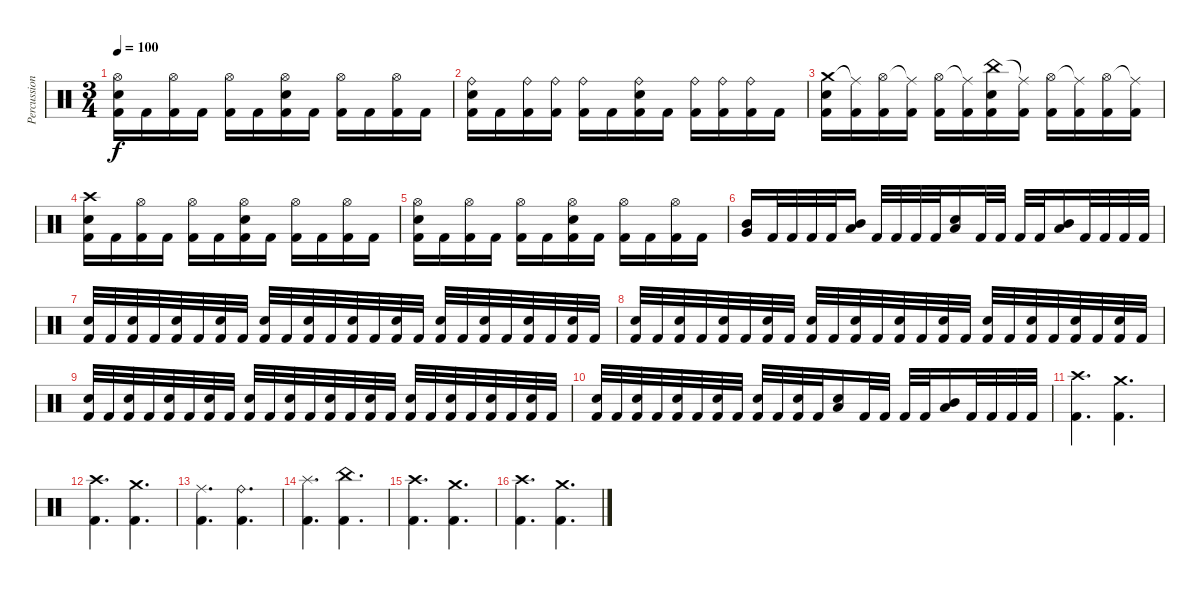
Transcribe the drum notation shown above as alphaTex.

\track ("Percussion" "Percussion") {instrument percussion}
\staff {score}
\articulation defaults
\ts (3 4)
\tempo 100
\clef neutral
\ks c
("Hi-Hat (open)" "Snare (hit) 2" "Kick (hit) 2").16{dy f} "Kick (hit) 2".16 ("Hi-Hat (open)" "Kick (hit) 2").16 "Kick (hit) 2".16 ("Hi-Hat (open)" "Kick (hit) 2").16 "Kick (hit) 2".16 ("Hi-Hat (open)" "Snare (hit) 2" "Kick (hit) 2").16 "Kick (hit) 2".16 ("Hi-Hat (open)" "Kick (hit) 2").16 "Kick (hit) 2".16 ("Hi-Hat (open)" "Kick (hit) 2").16 "Kick (hit) 2".16 |
("Ride (bell)" "Snare (hit) 2" "Kick (hit) 2").16 "Kick (hit) 2".16 ("Ride (bell)" "Kick (hit) 2").16 ("Ride (bell)" "Kick (hit) 2").16 ("Ride (bell)" "Kick (hit) 2").16 "Kick (hit) 2".16 ("Ride (bell)" "Snare (hit) 2" "Kick (hit) 2").16 "Kick (hit) 2".16 ("Ride (bell)" "Kick (hit) 2").16 ("Ride (bell)" "Kick (hit) 2").16 ("Ride (bell)" "Kick (hit) 2").16 "Kick (hit) 2".16 |
("Crash medium (hit)" "Snare (hit) 2" "Kick (hit) 2").16 ("Ride (middle)"{t} "Kick (hit) 2").16 ("Hi-Hat (open)" "Kick (hit) 2").16 ("Ride (middle)"{t} "Kick (hit) 2").16 ("Hi-Hat (open)" "Kick (hit) 2").16 ("Ride (middle)"{t} "Kick (hit) 2").16 ("China (hit)" "Snare (hit) 2" "Kick (hit) 2").16 ("Ride (middle)"{t} "Kick (hit) 2").16 ("Hi-Hat (open)" "Kick (hit) 2").16 ("Ride (middle)"{t} "Kick (hit) 2").16 ("Hi-Hat (open)" "Kick (hit) 2").16 ("Ride (middle)"{t} "Kick (hit) 2").16 |
("Crash high (hit)" "Snare (hit) 2" "Kick (hit) 2").16 "Kick (hit) 2".16 ("Hi-Hat (open)" "Kick (hit) 2").16 "Kick (hit) 2".16 ("Hi-Hat (open)" "Kick (hit) 2").16 "Kick (hit) 2".16 ("Hi-Hat (open)" "Snare (hit) 2" "Kick (hit) 2").16 "Kick (hit) 2".16 ("Hi-Hat (open)" "Kick (hit) 2").16 "Kick (hit) 2".16 ("Hi-Hat (open)" "Kick (hit) 2").16 "Kick (hit) 2".16 |
("Hi-Hat (open)" "Snare (hit) 2" "Kick (hit) 2").16 "Kick (hit) 2".16 ("Hi-Hat (open)" "Kick (hit) 2").16 "Kick (hit) 2".16 ("Hi-Hat (open)" "Kick (hit) 2").16 "Kick (hit) 2".16 ("Hi-Hat (open)" "Snare (hit) 2" "Kick (hit) 2").16 "Kick (hit) 2".16 ("Hi-Hat (open)" "Kick (hit) 2").16 "Kick (hit) 2".16 ("Hi-Hat (open)" "Kick (hit) 2").16 "Kick (hit) 2".16 |
("Very Low Tom (hit)" "Mid Tom (hit)").16 "Kick (hit) 2".32 "Kick (hit) 2".32 "Kick (hit) 2".32 "Kick (hit) 2".32 ("Low Floor Tom (hit)" "Mid Tom (hit)").16 "Kick (hit) 2".32 "Kick (hit) 2".32 "Kick (hit) 2".32 "Kick (hit) 2".32 ("Low Floor Tom (hit)" "Snare (hit) 2").16 "Kick (hit) 2".32 "Kick (hit) 2".32 "Kick (hit) 2".32 "Kick (hit) 2".32 ("Low Floor Tom (hit)" "Mid Tom (hit)").16 "Kick (hit) 2".32 "Kick (hit) 2".32 "Kick (hit) 2".32 "Kick (hit) 2".32 |
("Snare (hit) 2" "Kick (hit) 2").32 "Kick (hit) 2".32 ("Snare (hit) 2" "Kick (hit) 2").32 "Kick (hit) 2".32 ("Snare (hit) 2" "Kick (hit) 2").32 "Kick (hit) 2".32 ("Snare (hit) 2" "Kick (hit) 2").32 "Kick (hit) 2".32 ("Snare (hit) 2" "Kick (hit) 2").32 "Kick (hit) 2".32 ("Snare (hit) 2" "Kick (hit) 2").32 "Kick (hit) 2".32 ("Snare (hit) 2" "Kick (hit) 2").32 "Kick (hit) 2".32 ("Snare (hit) 2" "Kick (hit) 2").32 "Kick (hit) 2".32 ("Snare (hit) 2" "Kick (hit) 2").32 "Kick (hit) 2".32 ("Snare (hit) 2" "Kick (hit) 2").32 "Kick (hit) 2".32 ("Snare (hit) 2" "Kick (hit) 2").32 "Kick (hit) 2".32 ("Snare (hit) 2" "Kick (hit) 2").32 "Kick (hit) 2".32 |
("Snare (hit) 2" "Kick (hit) 2").32 "Kick (hit) 2".32 ("Snare (hit) 2" "Kick (hit) 2").32 "Kick (hit) 2".32 ("Snare (hit) 2" "Kick (hit) 2").32 "Kick (hit) 2".32 ("Snare (hit) 2" "Kick (hit) 2").32 "Kick (hit) 2".32 ("Snare (hit) 2" "Kick (hit) 2").32 "Kick (hit) 2".32 ("Snare (hit) 2" "Kick (hit) 2").32 "Kick (hit) 2".32 ("Snare (hit) 2" "Kick (hit) 2").32 "Kick (hit) 2".32 ("Snare (hit) 2" "Kick (hit) 2").32 "Kick (hit) 2".32 ("Snare (hit) 2" "Kick (hit) 2").32 "Kick (hit) 2".32 ("Snare (hit) 2" "Kick (hit) 2").32 "Kick (hit) 2".32 ("Snare (hit) 2" "Kick (hit) 2").32 "Kick (hit) 2".32 ("Snare (hit) 2" "Kick (hit) 2").32 "Kick (hit) 2".32 |
("Snare (hit) 2" "Kick (hit) 2").32 "Kick (hit) 2".32 ("Snare (hit) 2" "Kick (hit) 2").32 "Kick (hit) 2".32 ("Snare (hit) 2" "Kick (hit) 2").32 "Kick (hit) 2".32 ("Snare (hit) 2" "Kick (hit) 2").32 "Kick (hit) 2".32 ("Snare (hit) 2" "Kick (hit) 2").32 "Kick (hit) 2".32 ("Snare (hit) 2" "Kick (hit) 2").32 "Kick (hit) 2".32 ("Snare (hit) 2" "Kick (hit) 2").32 "Kick (hit) 2".32 ("Snare (hit) 2" "Kick (hit) 2").32 "Kick (hit) 2".32 ("Snare (hit) 2" "Kick (hit) 2").32 "Kick (hit) 2".32 ("Snare (hit) 2" "Kick (hit) 2").32 "Kick (hit) 2".32 ("Snare (hit) 2" "Kick (hit) 2").32 "Kick (hit) 2".32 ("Snare (hit) 2" "Kick (hit) 2").32 "Kick (hit) 2".32 |
("Snare (hit) 2" "Kick (hit) 2").32 "Kick (hit) 2".32 ("Snare (hit) 2" "Kick (hit) 2").32 "Kick (hit) 2".32 ("Snare (hit) 2" "Kick (hit) 2").32 "Kick (hit) 2".32 ("Snare (hit) 2" "Kick (hit) 2").32 "Kick (hit) 2".32 ("Snare (hit) 2" "Kick (hit) 2").32 "Kick (hit) 2".32 ("Snare (hit) 2" "Kick (hit) 2").32 "Kick (hit) 2".32 ("Low Floor Tom (hit)" "Snare (hit) 2").16 "Kick (hit) 2".32 "Kick (hit) 2".32 "Kick (hit) 2".32 "Kick (hit) 2".32 ("Low Floor Tom (hit)" "Mid Tom (hit)").16 "Kick (hit) 2".32 "Kick (hit) 2".32 "Kick (hit) 2".32 "Kick (hit) 2".32 |
("Crash high (hit)" "Kick (hit) 2").4{d} ("Crash medium (hit)" "Kick (hit) 2").4{d} |
("Crash high (hit)" "Kick (hit) 2").4{d} ("Crash medium (hit)" "Kick (hit) 2").4{d} |
("Ride (middle)" "Kick (hit) 2").4{d} ("Ride (bell)" "Kick (hit) 2").4{d} |
("Splash (hit)" "Kick (hit) 2").4{d} ("China (hit)" "Kick (hit) 2").4{d} |
("Crash high (hit)" "Kick (hit) 2").4{d} ("Crash medium (hit)" "Kick (hit) 2").4{d} |
("Crash high (hit)" "Kick (hit) 2").4{d} ("Crash medium (hit)" "Kick (hit) 2").4{d}
